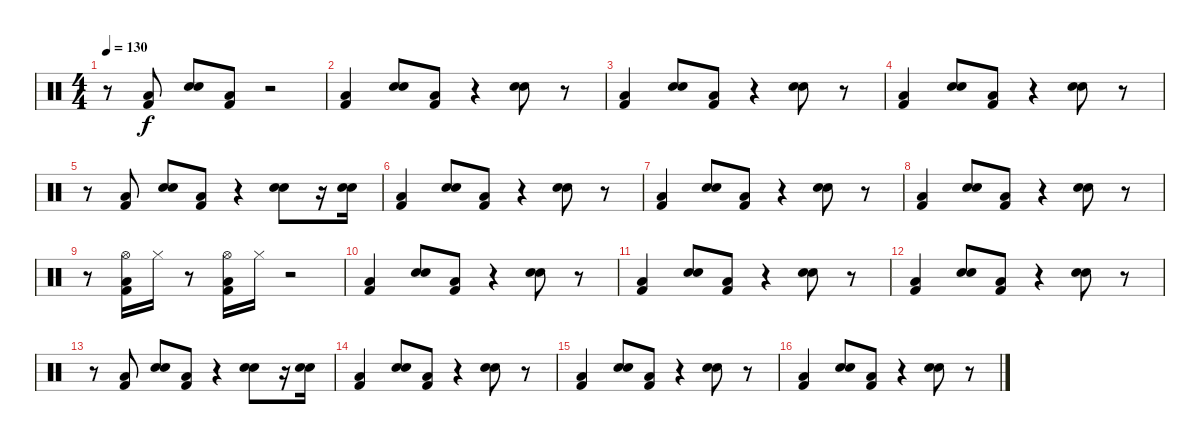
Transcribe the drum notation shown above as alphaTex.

\track "" {instrument percussion}
\staff {score}
\articulation defaults
\ts (4 4)
\tempo 130
\clef neutral
\ks c
r.8{dy f} ("Kick (hit) 2" "Low Floor Tom (hit)").8 ("Snare (hit) 2" "Hand Clap (hit)").8 ("Kick (hit) 2" "Low Floor Tom (hit)").8 r.2 |
("Kick (hit) 2" "Low Floor Tom (hit)").4 ("Snare (hit) 2" "Hand Clap (hit)").8 ("Kick (hit) 2" "Low Floor Tom (hit)").8 r.4 ("Snare (hit) 2" "Hand Clap (hit)").8 r.8 |
("Kick (hit) 2" "Low Floor Tom (hit)").4 ("Snare (hit) 2" "Hand Clap (hit)").8 ("Kick (hit) 2" "Low Floor Tom (hit)").8 r.4 ("Snare (hit) 2" "Hand Clap (hit)").8 r.8 |
("Kick (hit) 2" "Low Floor Tom (hit)").4 ("Snare (hit) 2" "Hand Clap (hit)").8 ("Kick (hit) 2" "Low Floor Tom (hit)").8 r.4 ("Snare (hit) 2" "Hand Clap (hit)").8 r.8 |
r.8 ("Kick (hit) 2" "Low Floor Tom (hit)").8 ("Snare (hit) 2" "Hand Clap (hit)").8 ("Kick (hit) 2" "Low Floor Tom (hit)").8 r.4 ("Snare (hit) 2" "Hand Clap (hit)").8 r.16 ("Snare (hit) 2" "Hand Clap (hit)").16 |
("Kick (hit) 2" "Low Floor Tom (hit)").4 ("Snare (hit) 2" "Hand Clap (hit)").8 ("Kick (hit) 2" "Low Floor Tom (hit)").8 r.4 ("Snare (hit) 2" "Hand Clap (hit)").8 r.8 |
("Kick (hit) 2" "Low Floor Tom (hit)").4 ("Snare (hit) 2" "Hand Clap (hit)").8 ("Kick (hit) 2" "Low Floor Tom (hit)").8 r.4 ("Snare (hit) 2" "Hand Clap (hit)").8 r.8 |
("Kick (hit) 2" "Low Floor Tom (hit)").4 ("Snare (hit) 2" "Hand Clap (hit)").8 ("Kick (hit) 2" "Low Floor Tom (hit)").8 r.4 ("Snare (hit) 2" "Hand Clap (hit)").8 r.8 |
r.8 ("Kick (hit) 2" "Low Floor Tom (hit)" "Hi-Hat (open)").16 "Hi-Hat (closed)".16 r.8 ("Kick (hit) 2" "Low Floor Tom (hit)" "Hi-Hat (open)").16 "Hi-Hat (closed)".16 r.2 |
("Kick (hit) 2" "Low Floor Tom (hit)").4 ("Snare (hit) 2" "Hand Clap (hit)").8 ("Kick (hit) 2" "Low Floor Tom (hit)").8 r.4 ("Snare (hit) 2" "Hand Clap (hit)").8 r.8 |
("Kick (hit) 2" "Low Floor Tom (hit)").4 ("Snare (hit) 2" "Hand Clap (hit)").8 ("Kick (hit) 2" "Low Floor Tom (hit)").8 r.4 ("Snare (hit) 2" "Hand Clap (hit)").8 r.8 |
("Kick (hit) 2" "Low Floor Tom (hit)").4 ("Snare (hit) 2" "Hand Clap (hit)").8 ("Kick (hit) 2" "Low Floor Tom (hit)").8 r.4 ("Snare (hit) 2" "Hand Clap (hit)").8 r.8 |
r.8 ("Kick (hit) 2" "Low Floor Tom (hit)").8 ("Snare (hit) 2" "Hand Clap (hit)").8 ("Kick (hit) 2" "Low Floor Tom (hit)").8 r.4 ("Snare (hit) 2" "Hand Clap (hit)").8 r.16 ("Snare (hit) 2" "Hand Clap (hit)").16 |
("Kick (hit) 2" "Low Floor Tom (hit)").4 ("Snare (hit) 2" "Hand Clap (hit)").8 ("Kick (hit) 2" "Low Floor Tom (hit)").8 r.4 ("Snare (hit) 2" "Hand Clap (hit)").8 r.8 |
("Kick (hit) 2" "Low Floor Tom (hit)").4 ("Snare (hit) 2" "Hand Clap (hit)").8 ("Kick (hit) 2" "Low Floor Tom (hit)").8 r.4 ("Snare (hit) 2" "Hand Clap (hit)").8 r.8 |
("Kick (hit) 2" "Low Floor Tom (hit)").4 ("Snare (hit) 2" "Hand Clap (hit)").8 ("Kick (hit) 2" "Low Floor Tom (hit)").8 r.4 ("Snare (hit) 2" "Hand Clap (hit)").8 r.8
